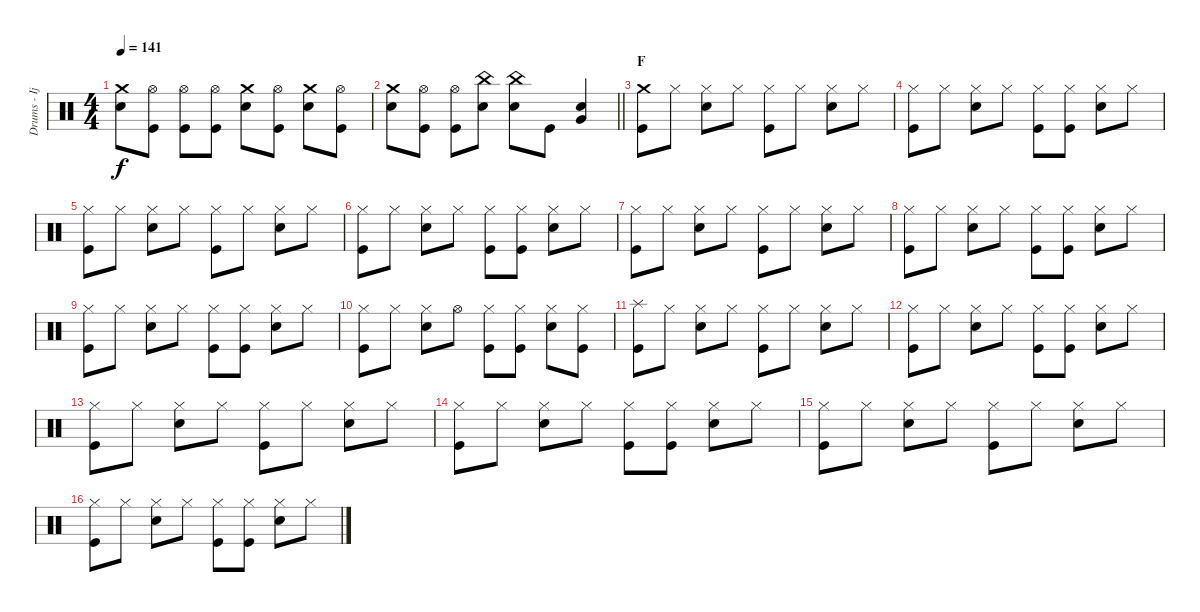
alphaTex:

\track ("Drums - Ijichi" "Drums - Ij") {instrument percussion}
\staff {score}
\articulation defaults
\ts (4 4)
\tempo 141
\clef neutral
\ks c
("Crash medium (hit)" "Electric Snare (hit)").8{dy f} ("Hi-Hat (open)" "Kick (hit)").8 ("Hi-Hat (open)" "Kick (hit)").8 ("Hi-Hat (open)" "Kick (hit)").8 ("Crash medium (hit)" "Electric Snare (hit)").8 ("Hi-Hat (open)" "Kick (hit)").8 ("Crash medium (hit)" "Electric Snare (hit)").8 ("Hi-Hat (open)" "Kick (hit)").8 |
\barLineRight lightlight
("Crash medium (hit)" "Electric Snare (hit)").8 ("Hi-Hat (open)" "Kick (hit)").8 ("Hi-Hat (open)" "Kick (hit)").8 ("China (hit)" "Electric Snare (hit)").8 ("China (hit)" "Electric Snare (hit)").8 "Kick (hit)".8 ("Electric Snare (hit)" "Very Low Tom (hit)").4 |
\section ("" "F")
("Crash medium (hit)" "Kick (hit)").8 "Hi-Hat (closed)".8 ("Hi-Hat (closed)" "Electric Snare (hit)").8 "Hi-Hat (closed)".8 ("Hi-Hat (closed)" "Kick (hit)").8 "Hi-Hat (closed)".8 ("Hi-Hat (closed)" "Electric Snare (hit)").8 "Hi-Hat (closed)".8 |
("Hi-Hat (closed)" "Kick (hit)").8 "Hi-Hat (closed)".8 ("Hi-Hat (closed)" "Electric Snare (hit)").8 "Hi-Hat (closed)".8 ("Hi-Hat (closed)" "Kick (hit)").8 ("Hi-Hat (closed)" "Kick (hit)").8 ("Hi-Hat (closed)" "Electric Snare (hit)").8 "Hi-Hat (closed)".8 |
("Hi-Hat (closed)" "Kick (hit)").8 "Hi-Hat (closed)".8 ("Hi-Hat (closed)" "Electric Snare (hit)").8 "Hi-Hat (closed)".8 ("Hi-Hat (closed)" "Kick (hit)").8 "Hi-Hat (closed)".8 ("Hi-Hat (closed)" "Electric Snare (hit)").8 "Hi-Hat (closed)".8 |
("Hi-Hat (closed)" "Kick (hit)").8 "Hi-Hat (closed)".8 ("Hi-Hat (closed)" "Electric Snare (hit)").8 "Hi-Hat (closed)".8 ("Hi-Hat (closed)" "Kick (hit)").8 ("Hi-Hat (closed)" "Kick (hit)").8 ("Hi-Hat (closed)" "Electric Snare (hit)").8 "Hi-Hat (closed)".8 |
("Hi-Hat (closed)" "Kick (hit)").8 "Hi-Hat (closed)".8 ("Hi-Hat (closed)" "Electric Snare (hit)").8 "Hi-Hat (closed)".8 ("Hi-Hat (closed)" "Kick (hit)").8 "Hi-Hat (closed)".8 ("Hi-Hat (closed)" "Electric Snare (hit)").8 "Hi-Hat (closed)".8 |
("Hi-Hat (closed)" "Kick (hit)").8 "Hi-Hat (closed)".8 ("Hi-Hat (closed)" "Electric Snare (hit)").8 "Hi-Hat (closed)".8 ("Hi-Hat (closed)" "Kick (hit)").8 ("Hi-Hat (closed)" "Kick (hit)").8 ("Hi-Hat (closed)" "Electric Snare (hit)").8 "Hi-Hat (closed)".8 |
("Hi-Hat (closed)" "Kick (hit)").8 "Hi-Hat (closed)".8 ("Hi-Hat (closed)" "Electric Snare (hit)").8 "Hi-Hat (closed)".8 ("Hi-Hat (closed)" "Kick (hit)").8 ("Hi-Hat (closed)" "Kick (hit)").8 ("Hi-Hat (closed)" "Electric Snare (hit)").8 "Hi-Hat (closed)".8 |
("Hi-Hat (closed)" "Kick (hit)").8 "Hi-Hat (closed)".8 ("Hi-Hat (closed)" "Electric Snare (hit)").8 "Hi-Hat (open)".8 ("Hi-Hat (closed)" "Kick (hit)").8 ("Hi-Hat (closed)" "Kick (hit)").8 ("Hi-Hat (closed)" "Electric Snare (hit)").8 ("Hi-Hat (closed)" "Kick (hit)").8 |
("Splash (hit)" "Kick (hit)").8 "Hi-Hat (closed)".8 ("Hi-Hat (closed)" "Electric Snare (hit)").8 "Hi-Hat (closed)".8 ("Hi-Hat (closed)" "Kick (hit)").8 "Hi-Hat (closed)".8 ("Hi-Hat (closed)" "Electric Snare (hit)").8 "Hi-Hat (closed)".8 |
("Hi-Hat (closed)" "Kick (hit)").8 "Hi-Hat (closed)".8 ("Hi-Hat (closed)" "Electric Snare (hit)").8 "Hi-Hat (closed)".8 ("Hi-Hat (closed)" "Kick (hit)").8 ("Hi-Hat (closed)" "Kick (hit)").8 ("Hi-Hat (closed)" "Electric Snare (hit)").8 "Hi-Hat (closed)".8 |
("Hi-Hat (closed)" "Kick (hit)").8 "Hi-Hat (closed)".8 ("Hi-Hat (closed)" "Electric Snare (hit)").8 "Hi-Hat (closed)".8 ("Hi-Hat (closed)" "Kick (hit)").8 "Hi-Hat (closed)".8 ("Hi-Hat (closed)" "Electric Snare (hit)").8 "Hi-Hat (closed)".8 |
("Hi-Hat (closed)" "Kick (hit)").8 "Hi-Hat (closed)".8 ("Hi-Hat (closed)" "Electric Snare (hit)").8 "Hi-Hat (closed)".8 ("Hi-Hat (closed)" "Kick (hit)").8 ("Hi-Hat (closed)" "Kick (hit)").8 ("Hi-Hat (closed)" "Electric Snare (hit)").8 "Hi-Hat (closed)".8 |
("Hi-Hat (closed)" "Kick (hit)").8 "Hi-Hat (closed)".8 ("Hi-Hat (closed)" "Electric Snare (hit)").8 "Hi-Hat (closed)".8 ("Hi-Hat (closed)" "Kick (hit)").8 "Hi-Hat (closed)".8 ("Hi-Hat (closed)" "Electric Snare (hit)").8 "Hi-Hat (closed)".8 |
("Hi-Hat (closed)" "Kick (hit)").8 "Hi-Hat (closed)".8 ("Hi-Hat (closed)" "Electric Snare (hit)").8 "Hi-Hat (closed)".8 ("Hi-Hat (closed)" "Kick (hit)").8 ("Hi-Hat (closed)" "Kick (hit)").8 ("Hi-Hat (closed)" "Electric Snare (hit)").8 "Hi-Hat (closed)".8
